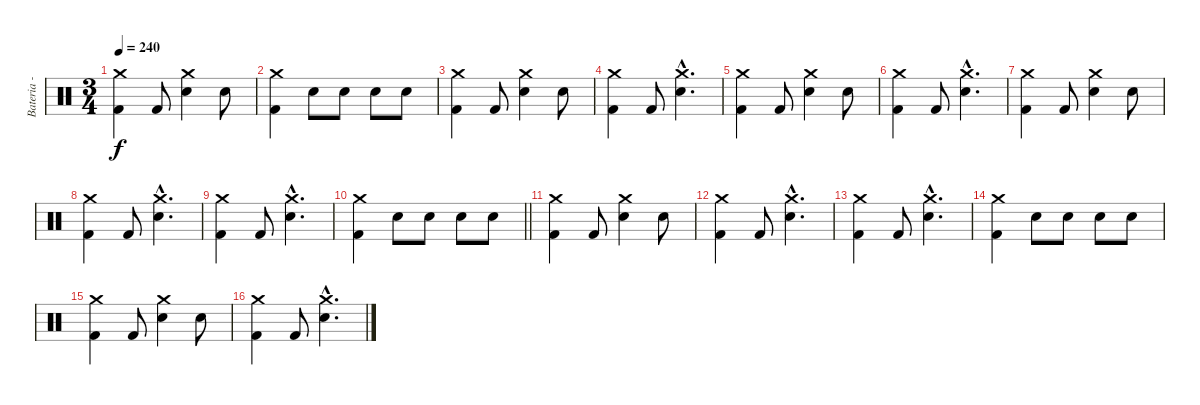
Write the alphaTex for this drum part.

\track ("Bateria - Larzon" "Bateria - ") {instrument percussion}
\staff {score}
\articulation defaults
\ts (3 4)
\tempo 240
\clef neutral
\ks c
("Kick (hit) 2" "Crash medium (hit)").4{dy f} "Kick (hit) 2".8 ("Snare (hit) 2" "Crash medium (hit)").4 "Snare (hit) 2".8 |
("Kick (hit) 2" "Crash medium (hit)").4 "Snare (hit) 2".8 "Snare (hit) 2".8 "Snare (hit) 2".8 "Snare (hit) 2".8 |
("Kick (hit) 2" "Crash medium (hit)").4 "Kick (hit) 2".8 ("Snare (hit) 2" "Crash medium (hit)").4 "Snare (hit) 2".8 |
("Kick (hit) 2" "Crash medium (hit)").4 "Kick (hit) 2".8 ("Snare (hit) 2"{hac} "Crash medium (hit)"{hac}).4{d} |
("Kick (hit) 2" "Crash medium (hit)").4 "Kick (hit) 2".8 ("Snare (hit) 2" "Crash medium (hit)").4 "Snare (hit) 2".8 |
("Kick (hit) 2" "Crash medium (hit)").4 "Kick (hit) 2".8 ("Snare (hit) 2"{hac} "Crash medium (hit)"{hac}).4{d} |
("Kick (hit) 2" "Crash medium (hit)").4 "Kick (hit) 2".8 ("Snare (hit) 2" "Crash medium (hit)").4 "Snare (hit) 2".8 |
("Kick (hit) 2" "Crash medium (hit)").4 "Kick (hit) 2".8 ("Snare (hit) 2"{hac} "Crash medium (hit)"{hac}).4{d} |
("Kick (hit) 2" "Crash medium (hit)").4 "Kick (hit) 2".8 ("Snare (hit) 2"{hac} "Crash medium (hit)"{hac}).4{d} |
\barLineRight lightlight
("Kick (hit) 2" "Crash medium (hit)").4 "Snare (hit) 2".8 "Snare (hit) 2".8 "Snare (hit) 2".8 "Snare (hit) 2".8 |
("Kick (hit) 2" "Crash medium (hit)").4 "Kick (hit) 2".8 ("Snare (hit) 2" "Crash medium (hit)").4 "Snare (hit) 2".8 |
("Kick (hit) 2" "Crash medium (hit)").4 "Kick (hit) 2".8 ("Snare (hit) 2"{hac} "Crash medium (hit)"{hac}).4{d} |
("Kick (hit) 2" "Crash medium (hit)").4 "Kick (hit) 2".8 ("Snare (hit) 2"{hac} "Crash medium (hit)"{hac}).4{d} |
("Kick (hit) 2" "Crash medium (hit)").4 "Snare (hit) 2".8 "Snare (hit) 2".8 "Snare (hit) 2".8 "Snare (hit) 2".8 |
("Kick (hit) 2" "Crash medium (hit)").4 "Kick (hit) 2".8 ("Snare (hit) 2" "Crash medium (hit)").4 "Snare (hit) 2".8 |
("Kick (hit) 2" "Crash medium (hit)").4 "Kick (hit) 2".8 ("Snare (hit) 2"{hac} "Crash medium (hit)"{hac}).4{d}
